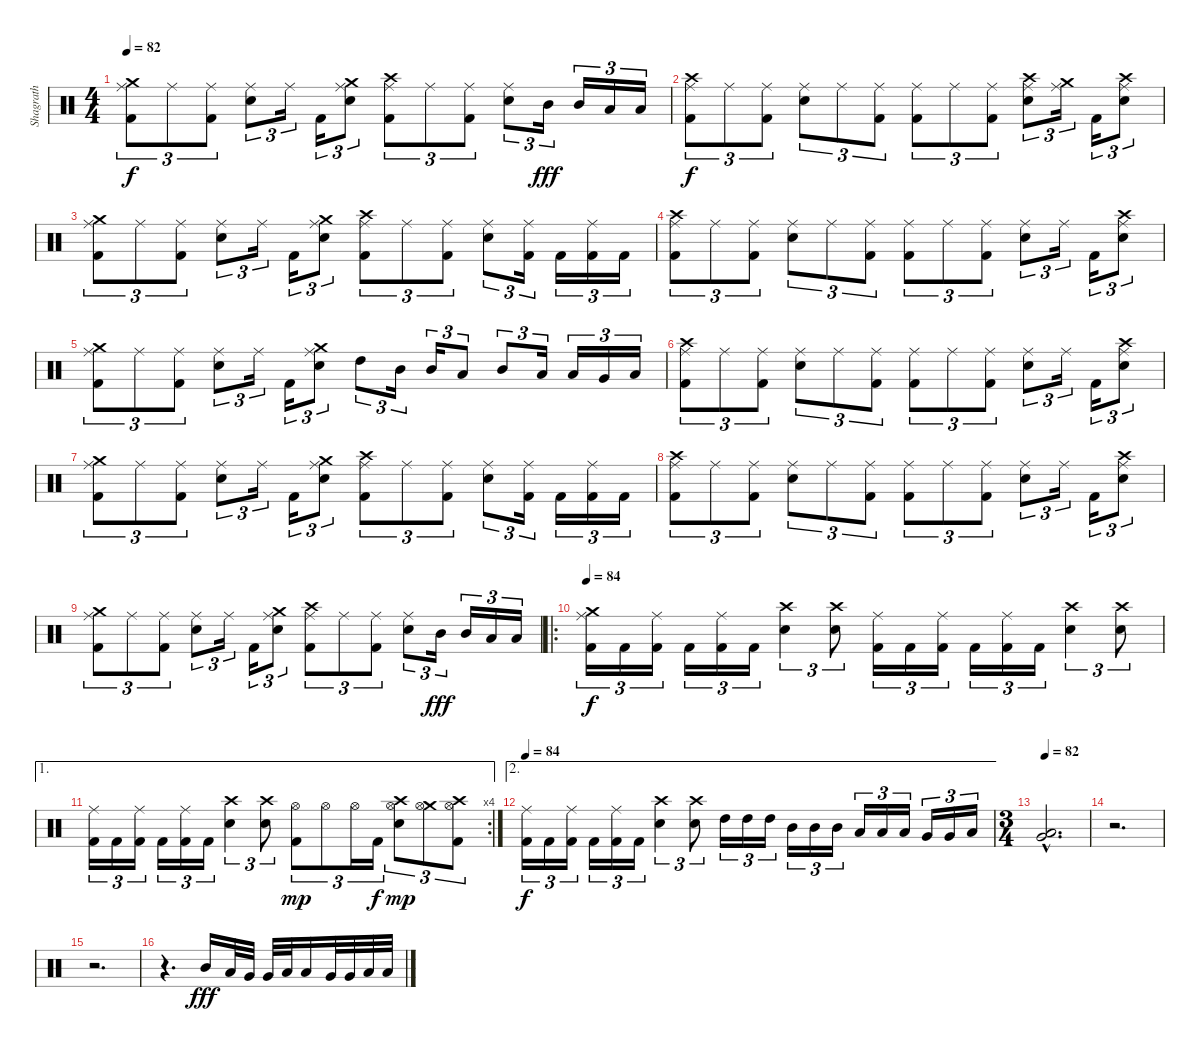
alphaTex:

\track ("Shagrath" "Shagrath") {instrument percussion}
\staff {score}
\articulation defaults
\ts (4 4)
\tempo 82
\clef neutral
\ks c
("Crash medium (hit)" "Ride (middle)" "Kick (hit) 2").8{tu (3 2) dy f} "Ride (middle)".8{tu (3 2)} ("Ride (middle)" "Kick (hit) 2").8{tu (3 2)} ("Ride (middle)" "Electric Snare (hit)").8{tu (3 2)} "Ride (middle)".16{tu (3 2)} "Kick (hit) 2".16{tu (3 2)} ("Crash medium (hit)" "Ride (middle)" "Electric Snare (hit)").8{tu (3 2)} ("Crash high (hit)" "Ride (middle)" "Kick (hit) 2").8{tu (3 2)} "Ride (middle)".8{tu (3 2)} ("Ride (middle)" "Kick (hit) 2").8{tu (3 2)} ("Ride (middle)" "Electric Snare (hit)").8{tu (3 2)} "Mid Tom (hit)".16{tu (3 2) dy fff} "Mid Tom (hit)".16{tu (3 2)} "Low Tom (hit)".16{tu (3 2)} "Low Tom (hit)".16{tu (3 2)} |
("Crash high (hit)" "Ride (middle)" "Kick (hit) 2").8{tu (3 2) dy f} "Ride (middle)".8{tu (3 2)} ("Ride (middle)" "Kick (hit) 2").8{tu (3 2)} ("Ride (middle)" "Electric Snare (hit)").8{tu (3 2)} "Ride (middle)".8{tu (3 2)} ("Ride (middle)" "Kick (hit) 2").8{tu (3 2)} ("Ride (middle)" "Kick (hit) 2").8{tu (3 2)} "Ride (middle)".8{tu (3 2)} ("Ride (middle)" "Kick (hit) 2").8{tu (3 2)} ("Crash high (hit)" "Ride (middle)" "Electric Snare (hit)").8{tu (3 2)} ("Crash medium (hit)" "Ride (middle)").16{tu (3 2)} "Kick (hit) 2".16{tu (3 2)} ("Crash high (hit)" "Ride (middle)" "Electric Snare (hit)").8{tu (3 2)} |
("Crash medium (hit)" "Ride (middle)" "Kick (hit) 2").8{tu (3 2)} "Ride (middle)".8{tu (3 2)} ("Ride (middle)" "Kick (hit) 2").8{tu (3 2)} ("Ride (middle)" "Electric Snare (hit)").8{tu (3 2)} "Ride (middle)".16{tu (3 2)} "Kick (hit) 2".16{tu (3 2)} ("Crash medium (hit)" "Ride (middle)" "Electric Snare (hit)").8{tu (3 2)} ("Crash high (hit)" "Ride (middle)" "Kick (hit) 2").8{tu (3 2)} "Ride (middle)".8{tu (3 2)} ("Ride (middle)" "Kick (hit) 2").8{tu (3 2)} ("Ride (middle)" "Electric Snare (hit)").8{tu (3 2)} ("Ride (middle)" "Kick (hit) 2").16{tu (3 2)} "Kick (hit) 2".16{tu (3 2)} ("Ride (middle)" "Kick (hit) 2").16{tu (3 2)} "Kick (hit) 2".16{tu (3 2)} |
("Crash high (hit)" "Ride (middle)" "Kick (hit) 2").8{tu (3 2)} "Ride (middle)".8{tu (3 2)} ("Ride (middle)" "Kick (hit) 2").8{tu (3 2)} ("Ride (middle)" "Electric Snare (hit)").8{tu (3 2)} "Ride (middle)".8{tu (3 2)} ("Ride (middle)" "Kick (hit) 2").8{tu (3 2)} ("Ride (middle)" "Kick (hit) 2").8{tu (3 2)} "Ride (middle)".8{tu (3 2)} ("Ride (middle)" "Kick (hit) 2").8{tu (3 2)} ("Ride (middle)" "Electric Snare (hit)").8{tu (3 2)} "Ride (middle)".16{tu (3 2)} "Kick (hit) 2".16{tu (3 2)} ("Crash high (hit)" "Ride (middle)" "Electric Snare (hit)").8{tu (3 2)} |
("Crash medium (hit)" "Ride (middle)" "Kick (hit) 2").8{tu (3 2)} "Ride (middle)".8{tu (3 2)} ("Ride (middle)" "Kick (hit) 2").8{tu (3 2)} ("Ride (middle)" "Electric Snare (hit)").8{tu (3 2)} "Ride (middle)".16{tu (3 2)} "Kick (hit) 2".16{tu (3 2)} ("Crash medium (hit)" "Ride (middle)" "Electric Snare (hit)").8{tu (3 2)} "High Tom (hit)".8{tu (3 2)} "Mid Tom (hit)".16{tu (3 2)} "Mid Tom (hit)".16{tu (3 2)} "Low Tom (hit)".8{tu (3 2)} "Mid Tom (hit)".8{tu (3 2)} "Low Tom (hit)".16{tu (3 2)} "Low Tom (hit)".16{tu (3 2)} "Very Low Tom (hit)".16{tu (3 2)} "Low Floor Tom (hit)".16{tu (3 2)} |
("Crash high (hit)" "Ride (middle)" "Kick (hit) 2").8{tu (3 2)} "Ride (middle)".8{tu (3 2)} ("Ride (middle)" "Kick (hit) 2").8{tu (3 2)} ("Ride (middle)" "Electric Snare (hit)").8{tu (3 2)} "Ride (middle)".8{tu (3 2)} ("Ride (middle)" "Kick (hit) 2").8{tu (3 2)} ("Ride (middle)" "Kick (hit) 2").8{tu (3 2)} "Ride (middle)".8{tu (3 2)} ("Ride (middle)" "Kick (hit) 2").8{tu (3 2)} ("Ride (middle)" "Electric Snare (hit)").8{tu (3 2)} "Ride (middle)".16{tu (3 2)} "Kick (hit) 2".16{tu (3 2)} ("Crash high (hit)" "Ride (middle)" "Electric Snare (hit)").8{tu (3 2)} |
("Crash medium (hit)" "Ride (middle)" "Kick (hit) 2").8{tu (3 2)} "Ride (middle)".8{tu (3 2)} ("Ride (middle)" "Kick (hit) 2").8{tu (3 2)} ("Ride (middle)" "Electric Snare (hit)").8{tu (3 2)} "Ride (middle)".16{tu (3 2)} "Kick (hit) 2".16{tu (3 2)} ("Crash medium (hit)" "Ride (middle)" "Electric Snare (hit)").8{tu (3 2)} ("Crash high (hit)" "Ride (middle)" "Kick (hit) 2").8{tu (3 2)} "Ride (middle)".8{tu (3 2)} ("Ride (middle)" "Kick (hit) 2").8{tu (3 2)} ("Ride (middle)" "Electric Snare (hit)").8{tu (3 2)} ("Ride (middle)" "Kick (hit) 2").16{tu (3 2)} "Kick (hit) 2".16{tu (3 2)} ("Ride (middle)" "Kick (hit) 2").16{tu (3 2)} "Kick (hit) 2".16{tu (3 2)} |
("Crash high (hit)" "Ride (middle)" "Kick (hit) 2").8{tu (3 2)} "Ride (middle)".8{tu (3 2)} ("Ride (middle)" "Kick (hit) 2").8{tu (3 2)} ("Ride (middle)" "Electric Snare (hit)").8{tu (3 2)} "Ride (middle)".8{tu (3 2)} ("Ride (middle)" "Kick (hit) 2").8{tu (3 2)} ("Ride (middle)" "Kick (hit) 2").8{tu (3 2)} "Ride (middle)".8{tu (3 2)} ("Ride (middle)" "Kick (hit) 2").8{tu (3 2)} ("Ride (middle)" "Electric Snare (hit)").8{tu (3 2)} "Ride (middle)".16{tu (3 2)} "Kick (hit) 2".16{tu (3 2)} ("Crash high (hit)" "Ride (middle)" "Electric Snare (hit)").8{tu (3 2)} |
("Crash medium (hit)" "Ride (middle)" "Kick (hit) 2").8{tu (3 2)} "Ride (middle)".8{tu (3 2)} ("Ride (middle)" "Kick (hit) 2").8{tu (3 2)} ("Ride (middle)" "Electric Snare (hit)").8{tu (3 2)} "Ride (middle)".16{tu (3 2)} "Kick (hit) 2".16{tu (3 2)} ("Crash medium (hit)" "Ride (middle)" "Electric Snare (hit)").8{tu (3 2)} ("Crash high (hit)" "Ride (middle)" "Kick (hit) 2").8{tu (3 2)} "Ride (middle)".8{tu (3 2)} ("Ride (middle)" "Kick (hit) 2").8{tu (3 2)} ("Ride (middle)" "Electric Snare (hit)").8{tu (3 2)} "Mid Tom (hit)".16{tu (3 2) dy fff} "Mid Tom (hit)".16{tu (3 2)} "Low Tom (hit)".16{tu (3 2)} "Low Tom (hit)".16{tu (3 2)} |
\ro
\tempo 84
("Crash medium (hit)" "Ride (middle)" "Kick (hit) 2").16{tu (3 2) dy f} "Kick (hit) 2".16{tu (3 2)} ("Ride (middle)" "Kick (hit) 2").16{tu (3 2)} "Kick (hit) 2".16{tu (3 2)} ("Ride (middle)" "Kick (hit) 2").16{tu (3 2)} "Kick (hit) 2".16{tu (3 2)} ("Crash high (hit)" "Electric Snare (hit)").4{tu (3 2)} ("Crash high (hit)" "Electric Snare (hit)").8{tu (3 2)} ("Ride (middle)" "Kick (hit) 2").16{tu (3 2)} "Kick (hit) 2".16{tu (3 2)} ("Ride (middle)" "Kick (hit) 2").16{tu (3 2)} "Kick (hit) 2".16{tu (3 2)} ("Ride (middle)" "Kick (hit) 2").16{tu (3 2)} "Kick (hit) 2".16{tu (3 2)} ("Crash high (hit)" "Electric Snare (hit)").4{tu (3 2)} ("Crash high (hit)" "Electric Snare (hit)").8{tu (3 2)} |
\ae 1
\rc 4
("Ride (middle)" "Kick (hit) 2").16{tu (3 2)} "Kick (hit) 2".16{tu (3 2)} ("Ride (middle)" "Kick (hit) 2").16{tu (3 2)} "Kick (hit) 2".16{tu (3 2)} ("Ride (middle)" "Kick (hit) 2").16{tu (3 2)} "Kick (hit) 2".16{tu (3 2)} ("Crash high (hit)" "Electric Snare (hit)").4{tu (3 2)} ("Crash high (hit)" "Electric Snare (hit)").8{tu (3 2)} ("Hi-Hat (open)" "Kick (hit) 2").8{tu (3 2) dy mp} "Hi-Hat (open)".8{tu (3 2)} "Hi-Hat (open)".16{tu (3 2)} "Kick (hit) 2".16{tu (3 2) dy f} ("Crash high (hit)" "Hi-Hat (open)" "Electric Snare (hit)").8{tu (3 2) dy mp} ("Crash medium (hit)" "Hi-Hat (open)").8{tu (3 2)} ("Crash high (hit)" "Hi-Hat (open)" "Kick (hit) 2").8{tu (3 2)} |
\ae 2
\tempo 84
("Ride (middle)" "Kick (hit) 2").16{tu (3 2) dy f} "Kick (hit) 2".16{tu (3 2)} ("Ride (middle)" "Kick (hit) 2").16{tu (3 2)} "Kick (hit) 2".16{tu (3 2)} ("Ride (middle)" "Kick (hit) 2").16{tu (3 2)} "Kick (hit) 2".16{tu (3 2)} ("Crash high (hit)" "Electric Snare (hit)").4{tu (3 2)} ("Crash high (hit)" "Electric Snare (hit)").8{tu (3 2)} "High Tom (hit)".16{tu (3 2)} "High Tom (hit)".16{tu (3 2)} "High Tom (hit)".16{tu (3 2)} "Mid Tom (hit)".16{tu (3 2)} "Mid Tom (hit)".16{tu (3 2)} "Mid Tom (hit)".16{tu (3 2)} "Low Tom (hit)".16{tu (3 2)} "Low Tom (hit)".16{tu (3 2)} "Low Tom (hit)".16{tu (3 2)} "Very Low Tom (hit)".16{tu (3 2)} "Very Low Tom (hit)".16{tu (3 2)} "Low Floor Tom (hit)".16{tu (3 2)} |
\ts (3 4)
\tempo 82
("Low Tom (hit)"{hac} "Very Low Tom (hit)"{hac}).2{d} |
r.2{d} |
r.2{d} |
r.4{d} "Mid Tom (hit)".16{dy fff} "Low Tom (hit)".32 "Very Low Tom (hit)".32 "Very Low Tom (hit)".32 "Low Floor Tom (hit)".32 "Low Tom (hit)".16 "Very Low Tom (hit)".32 "Very Low Tom (hit)".32 "Low Floor Tom (hit)".32 "Low Floor Tom (hit)".32
